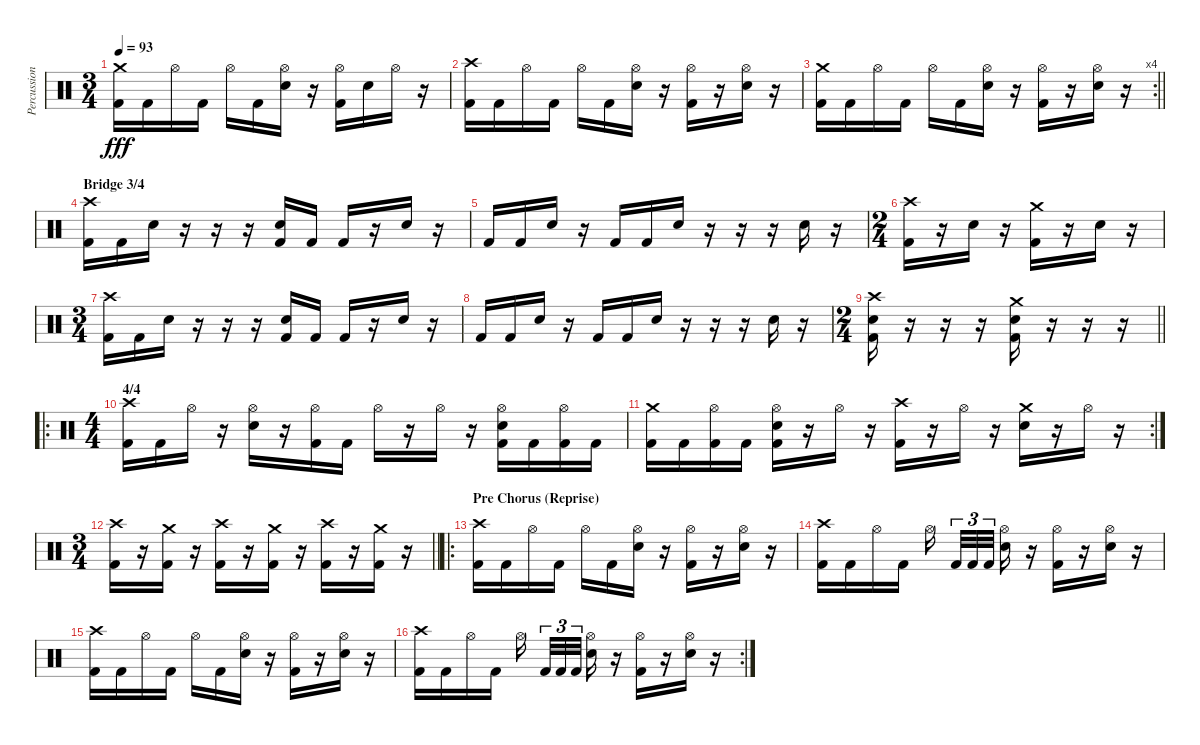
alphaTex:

\track ("Percussion" "Percussion") {instrument percussion}
\staff {score}
\articulation defaults
\ts (3 4)
\tempo 93
\clef neutral
\ks c
("Crash medium (hit)" "Kick (hit) 2").16{dy fff} "Kick (hit) 2".16 "Hi-Hat (open)".16 "Kick (hit) 2".16 "Hi-Hat (open)".16 "Kick (hit) 2".16 ("Hi-Hat (open)" "Snare (hit) 2").16 r.16 ("Hi-Hat (open)" "Kick (hit) 2").16 "Snare (hit) 2".16 "Hi-Hat (open)".16 r.16 |
("Crash high (hit)" "Kick (hit) 2").16 "Kick (hit) 2".16 "Hi-Hat (open)".16 "Kick (hit) 2".16 "Hi-Hat (open)".16 "Kick (hit) 2".16 ("Hi-Hat (open)" "Snare (hit) 2").16 r.16 ("Hi-Hat (open)" "Kick (hit) 2").16 r.16 ("Hi-Hat (open)" "Snare (hit) 2").16 r.16 |
\rc 4
\barLineRight lightlight
("Crash medium (hit)" "Kick (hit) 2").16 "Kick (hit) 2".16 "Hi-Hat (open)".16 "Kick (hit) 2".16 "Hi-Hat (open)".16 "Kick (hit) 2".16 ("Hi-Hat (open)" "Snare (hit) 2").16 r.16 ("Hi-Hat (open)" "Kick (hit) 2").16 r.16 ("Hi-Hat (open)" "Snare (hit) 2").16 r.16 |
\section ("" "Bridge 3/4")
("Crash high (hit)" "Kick (hit) 2").16 "Kick (hit) 2".16 "Snare (hit) 2".16 r.16 r.16 r.16 ("Snare (hit) 2" "Kick (hit) 2").16 "Kick (hit) 2".16 "Kick (hit) 2".16 r.16 "Snare (hit) 2".16 r.16 |
"Kick (hit) 2".16 "Kick (hit) 2".16 "Snare (hit) 2".16 r.16 "Kick (hit) 2".16 "Kick (hit) 2".16 "Snare (hit) 2".16 r.16 r.16 r.16 "Snare (hit) 2".16 r.16 |
\ts (2 4)
("Crash high (hit)" "Kick (hit) 2").16 r.16 "Snare (hit) 2".16 r.16 ("Crash medium (hit)" "Kick (hit) 2").16 r.16 "Snare (hit) 2".16 r.16 |
\ts (3 4)
("Crash high (hit)" "Kick (hit) 2").16 "Kick (hit) 2".16 "Snare (hit) 2".16 r.16 r.16 r.16 ("Snare (hit) 2" "Kick (hit) 2").16 "Kick (hit) 2".16 "Kick (hit) 2".16 r.16 "Snare (hit) 2".16 r.16 |
"Kick (hit) 2".16 "Kick (hit) 2".16 "Snare (hit) 2".16 r.16 "Kick (hit) 2".16 "Kick (hit) 2".16 "Snare (hit) 2".16 r.16 r.16 r.16 "Snare (hit) 2".16 r.16 |
\ts (2 4)
\barLineRight lightlight
("Crash high (hit)" "Snare (hit) 2" "Kick (hit) 2").16 r.16 r.16 r.16 ("Crash medium (hit)" "Snare (hit) 2" "Kick (hit) 2").16 r.16 r.16 r.16 |
\ro
\ts (4 4)
\section ("" "4/4")
("Crash high (hit)" "Kick (hit) 2").16 "Kick (hit) 2".16 "Hi-Hat (open)".16 r.16 ("Hi-Hat (open)" "Snare (hit) 2").16 r.16 ("Hi-Hat (open)" "Kick (hit) 2").16 "Kick (hit) 2".16 "Hi-Hat (open)".16 r.16 "Hi-Hat (open)".16 r.16 ("Hi-Hat (open)" "Snare (hit) 2" "Kick (hit) 2").16 "Kick (hit) 2".16 ("Hi-Hat (open)" "Kick (hit) 2").16 "Kick (hit) 2".16 |
\rc 2
("Crash medium (hit)" "Kick (hit) 2").16 "Kick (hit) 2".16 ("Hi-Hat (open)" "Kick (hit) 2").16 "Kick (hit) 2".16 ("Hi-Hat (open)" "Snare (hit) 2" "Kick (hit) 2").16 r.16 "Hi-Hat (open)".16 r.16 ("Crash high (hit)" "Kick (hit) 2").16 r.16 "Hi-Hat (open)".16 r.16 ("Crash medium (hit)" "Snare (hit) 2").16 r.16 "Hi-Hat (open)".16 r.16 |
\ts (3 4)
\barLineRight lightlight
("Crash high (hit)" "Kick (hit) 2").16 r.16 ("Crash medium (hit)" "Kick (hit) 2").16 r.16 ("Crash high (hit)" "Kick (hit) 2").16 r.16 ("Crash medium (hit)" "Kick (hit) 2").16 r.16 ("Crash high (hit)" "Kick (hit) 2").16 r.16 ("Crash medium (hit)" "Kick (hit) 2").16 r.16 |
\ro
\section ("" "Pre Chorus (Reprise)")
("Crash high (hit)" "Kick (hit) 2").16 "Kick (hit) 2".16 "Hi-Hat (open)".16 "Kick (hit) 2".16 "Hi-Hat (open)".16 "Kick (hit) 2".16 ("Hi-Hat (open)" "Snare (hit) 2").16 r.16 ("Hi-Hat (open)" "Kick (hit) 2").16 r.16 ("Hi-Hat (open)" "Snare (hit) 2").16 r.16 |
("Crash high (hit)" "Kick (hit) 2").16 "Kick (hit) 2".16 "Hi-Hat (open)".16 "Kick (hit) 2".16 "Hi-Hat (open)".16{beam splitsecondary} "Kick (hit) 2".32{tu (3 2)} "Kick (hit) 2".32{tu (3 2)} "Kick (hit) 2".32{tu (3 2) beam splitsecondary} ("Hi-Hat (open)" "Snare (hit) 2").16 r.16 ("Hi-Hat (open)" "Kick (hit) 2").16 r.16 ("Hi-Hat (open)" "Snare (hit) 2").16 r.16 |
("Crash high (hit)" "Kick (hit) 2").16 "Kick (hit) 2".16 "Hi-Hat (open)".16 "Kick (hit) 2".16 "Hi-Hat (open)".16 "Kick (hit) 2".16 ("Hi-Hat (open)" "Snare (hit) 2").16 r.16 ("Hi-Hat (open)" "Kick (hit) 2").16 r.16 ("Hi-Hat (open)" "Snare (hit) 2").16 r.16 |
\rc 2
("Crash high (hit)" "Kick (hit) 2").16 "Kick (hit) 2".16 "Hi-Hat (open)".16 "Kick (hit) 2".16 "Hi-Hat (open)".16{beam splitsecondary} "Kick (hit) 2".32{tu (3 2)} "Kick (hit) 2".32{tu (3 2)} "Kick (hit) 2".32{tu (3 2) beam splitsecondary} ("Hi-Hat (open)" "Snare (hit) 2").16 r.16 ("Hi-Hat (open)" "Kick (hit) 2").16 r.16 ("Hi-Hat (open)" "Snare (hit) 2").16 r.16
